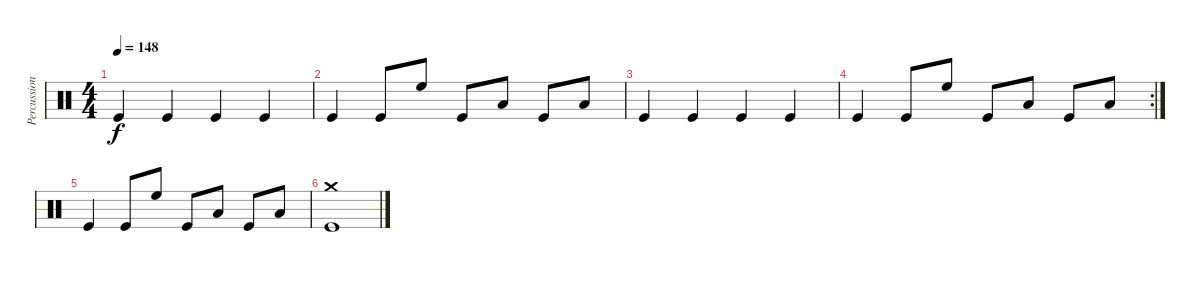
\track ("Percussion" "Percussion") {instrument percussion}
\staff {score}
\articulation defaults
\ts (4 4)
\tempo 148
\clef neutral
\ks c "Kick (hit)".4{dy f} "Kick (hit)".4 "Kick (hit)".4 "Kick (hit)".4
|
"Kick (hit)".4 "Kick (hit)".8 "High Floor Tom (hit)".8 "Kick (hit)".8 "Low Tom (hit)".8 "Kick (hit)".8 "Low Floor Tom (hit)".8 |
"Kick (hit)".4 "Kick (hit)".4 "Kick (hit)".4 "Kick (hit)".4 |
\rc 2 "Kick (hit)".4 "Kick (hit)".8 "High Floor Tom (hit)".8 "Kick (hit)".8 "Low Tom (hit)".8 "Kick (hit)".8 "Low Floor Tom (hit)".8
|
"Kick (hit)".4 "Kick (hit)".8 "High Floor Tom (hit)".8 "Kick (hit)".8 "Low Tom (hit)".8 "Kick (hit)".8 "Low Floor Tom (hit)".8 |
("Crash medium (hit)" "Kick (hit)").1
